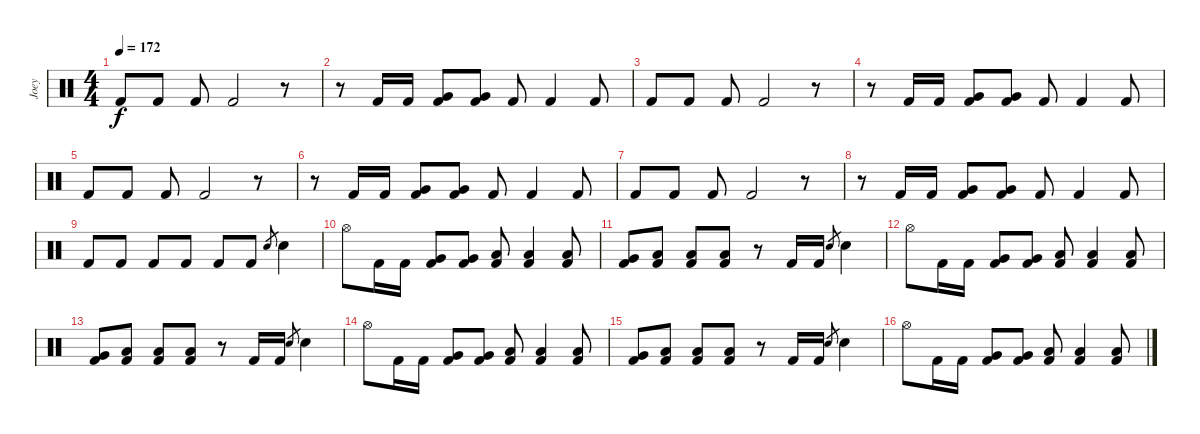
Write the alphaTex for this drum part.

\track ("Joey" "Joey") {instrument percussion}
\staff {score}
\articulation defaults
\ts (4 4)
\tempo 172
\clef neutral
\ks c "Kick (hit) 2".8{dy f} "Kick (hit) 2".8 "Kick (hit) 2".8 "Kick (hit) 2".2
r.8 |
r.8 "Kick (hit) 2".16 "Kick (hit) 2".16 ("Very Low Tom (hit)" "Kick (hit) 2").8 ("Very Low Tom (hit)" "Kick (hit) 2").8 "Kick (hit) 2".8 "Kick (hit) 2".4 "Kick (hit) 2".8 |
"Kick (hit) 2".8 "Kick (hit) 2".8 "Kick (hit) 2".8 "Kick (hit) 2".2 r.8 |
r.8 "Kick (hit) 2".16 "Kick (hit) 2".16 ("Very Low Tom (hit)" "Kick (hit) 2").8 ("Very Low Tom (hit)" "Kick (hit) 2").8 "Kick (hit) 2".8 "Kick (hit) 2".4 "Kick (hit) 2".8 |
"Kick (hit) 2".8 "Kick (hit) 2".8 "Kick (hit) 2".8 "Kick (hit) 2".2 r.8 |
r.8 "Kick (hit) 2".16 "Kick (hit) 2".16 ("Very Low Tom (hit)" "Kick (hit) 2").8 ("Very Low Tom (hit)" "Kick (hit) 2").8 "Kick (hit) 2".8 "Kick (hit) 2".4 "Kick (hit) 2".8 |
"Kick (hit) 2".8 "Kick (hit) 2".8 "Kick (hit) 2".8 "Kick (hit) 2".2 r.8 |
r.8 "Kick (hit) 2".16 "Kick (hit) 2".16 ("Very Low Tom (hit)" "Kick (hit) 2").8 ("Very Low Tom (hit)" "Kick (hit) 2").8 "Kick (hit) 2".8 "Kick (hit) 2".4 "Kick (hit) 2".8 |
"Kick (hit) 2".8 "Kick (hit) 2".8 "Kick (hit) 2".8 "Kick (hit) 2".8 "Kick (hit) 2".8 "Kick (hit) 2".8 "Electric Snare (hit)".8{gr} "Electric Snare (hit)".4 |
"Hi-Hat (open)".8 "Kick (hit) 2".16 "Kick (hit) 2".16 ("Very Low Tom (hit)" "Kick (hit) 2").8 ("Very Low Tom (hit)" "Kick (hit) 2").8 ("Low Floor Tom (hit)" "Kick (hit) 2").8 ("Low Floor Tom (hit)" "Kick (hit) 2").4 ("Low Floor Tom (hit)" "Kick (hit) 2").8 |
("Very Low Tom (hit)" "Kick (hit) 2").8 ("Low Floor Tom (hit)" "Kick (hit) 2").8 ("Low Floor Tom (hit)" "Kick (hit) 2").8 ("Low Floor Tom (hit)" "Kick (hit) 2").8 r.8 "Kick (hit) 2".16 "Kick (hit) 2".16 "Electric Snare (hit)".8{gr} "Electric Snare (hit)".4 |
"Hi-Hat (open)".8 "Kick (hit) 2".16 "Kick (hit) 2".16 ("Very Low Tom (hit)" "Kick (hit) 2").8 ("Very Low Tom (hit)" "Kick (hit) 2").8 ("Low Floor Tom (hit)" "Kick (hit) 2").8 ("Low Floor Tom (hit)" "Kick (hit) 2").4 ("Low Floor Tom (hit)" "Kick (hit) 2").8 |
("Very Low Tom (hit)" "Kick (hit) 2").8 ("Low Floor Tom (hit)" "Kick (hit) 2").8 ("Low Floor Tom (hit)" "Kick (hit) 2").8 ("Low Floor Tom (hit)" "Kick (hit) 2").8 r.8 "Kick (hit) 2".16 "Kick (hit) 2".16 "Electric Snare (hit)".8{gr} "Electric Snare (hit)".4 |
"Hi-Hat (open)".8 "Kick (hit) 2".16 "Kick (hit) 2".16 ("Very Low Tom (hit)" "Kick (hit) 2").8 ("Very Low Tom (hit)" "Kick (hit) 2").8 ("Low Floor Tom (hit)" "Kick (hit) 2").8 ("Low Floor Tom (hit)" "Kick (hit) 2").4 ("Low Floor Tom (hit)" "Kick (hit) 2").8 |
("Very Low Tom (hit)" "Kick (hit) 2").8 ("Low Floor Tom (hit)" "Kick (hit) 2").8 ("Low Floor Tom (hit)" "Kick (hit) 2").8 ("Low Floor Tom (hit)" "Kick (hit) 2").8 r.8 "Kick (hit) 2".16 "Kick (hit) 2".16 "Electric Snare (hit)".8{gr} "Electric Snare (hit)".4 |
"Hi-Hat (open)".8 "Kick (hit) 2".16 "Kick (hit) 2".16 ("Very Low Tom (hit)" "Kick (hit) 2").8 ("Very Low Tom (hit)" "Kick (hit) 2").8 ("Low Floor Tom (hit)" "Kick (hit) 2").8 ("Low Floor Tom (hit)" "Kick (hit) 2").4 ("Low Floor Tom (hit)" "Kick (hit) 2").8
